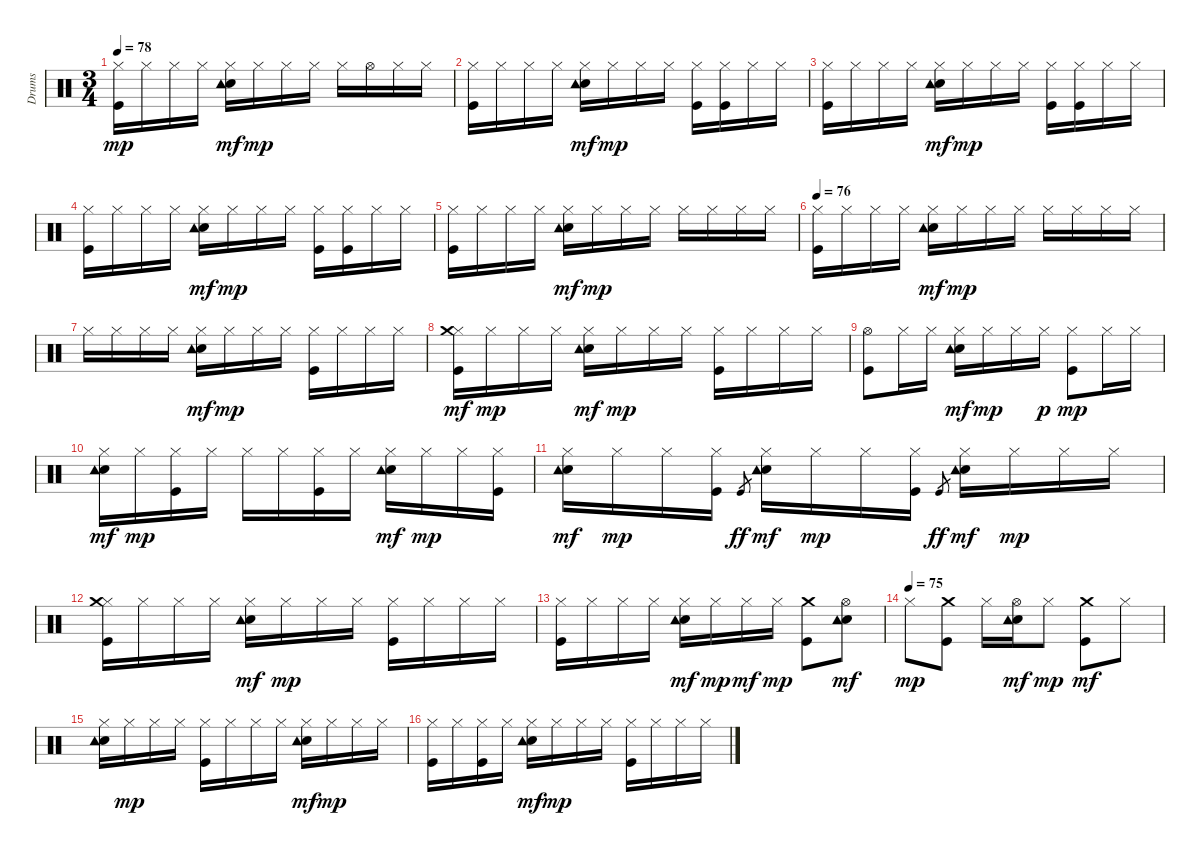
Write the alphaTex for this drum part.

\track ("Drums" "Drums") {instrument percussion}
\staff {score}
\articulation defaults
\ts (3 4)
\tempo 78
\clef neutral
\ks c
("Kick (hit)" "Hi-Hat (closed)").16{dy mp} "Hi-Hat (closed)".16 "Hi-Hat (closed)".16 "Hi-Hat (closed)".16 ("Electric Snare (hit)" "Hi-Hat (closed)" "Tambourine (hit)").16{dy mf} "Hi-Hat (closed)".16{dy mp} "Hi-Hat (closed)".16 "Hi-Hat (closed)".16 "Hi-Hat (closed)".16 "Hi-Hat (open)".16 "Hi-Hat (closed)".16 "Hi-Hat (closed)".16 |
("Kick (hit)" "Hi-Hat (closed)").16 "Hi-Hat (closed)".16 "Hi-Hat (closed)".16 "Hi-Hat (closed)".16 ("Electric Snare (hit)" "Hi-Hat (closed)" "Tambourine (hit)").16{dy mf} "Hi-Hat (closed)".16{dy mp} "Hi-Hat (closed)".16 "Hi-Hat (closed)".16 ("Kick (hit)" "Hi-Hat (closed)").16 ("Kick (hit)" "Hi-Hat (closed)").16 "Hi-Hat (closed)".16 "Hi-Hat (closed)".16 |
("Kick (hit)" "Hi-Hat (closed)").16 "Hi-Hat (closed)".16 "Hi-Hat (closed)".16 "Hi-Hat (closed)".16 ("Electric Snare (hit)" "Hi-Hat (closed)" "Tambourine (hit)").16{dy mf} "Hi-Hat (closed)".16{dy mp} "Hi-Hat (closed)".16 "Hi-Hat (closed)".16 ("Kick (hit)" "Hi-Hat (closed)").16 ("Kick (hit)" "Hi-Hat (closed)").16 "Hi-Hat (closed)".16 "Hi-Hat (closed)".16 |
("Kick (hit)" "Hi-Hat (closed)").16 "Hi-Hat (closed)".16 "Hi-Hat (closed)".16 "Hi-Hat (closed)".16 ("Electric Snare (hit)" "Hi-Hat (closed)" "Tambourine (hit)").16{dy mf} "Hi-Hat (closed)".16{dy mp} "Hi-Hat (closed)".16 "Hi-Hat (closed)".16 ("Kick (hit)" "Hi-Hat (closed)").16 ("Kick (hit)" "Hi-Hat (closed)").16 "Hi-Hat (closed)".16 "Hi-Hat (closed)".16 |
("Kick (hit)" "Hi-Hat (closed)").16 "Hi-Hat (closed)".16 "Hi-Hat (closed)".16 "Hi-Hat (closed)".16 ("Electric Snare (hit)" "Hi-Hat (closed)" "Tambourine (hit)").16{dy mf} "Hi-Hat (closed)".16{dy mp} "Hi-Hat (closed)".16 "Hi-Hat (closed)".16 "Hi-Hat (closed)".16 "Hi-Hat (closed)".16 "Hi-Hat (closed)".16 "Hi-Hat (closed)".16 |
\tempo 76
("Kick (hit)" "Hi-Hat (closed)").16 "Hi-Hat (closed)".16 "Hi-Hat (closed)".16 "Hi-Hat (closed)".16 ("Electric Snare (hit)" "Hi-Hat (closed)" "Tambourine (hit)").16{dy mf} "Hi-Hat (closed)".16{dy mp} "Hi-Hat (closed)".16 "Hi-Hat (closed)".16 "Hi-Hat (closed)".16 "Hi-Hat (closed)".16 "Hi-Hat (closed)".16 "Hi-Hat (closed)".16 |
"Hi-Hat (closed)".16 "Hi-Hat (closed)".16 "Hi-Hat (closed)".16 "Hi-Hat (closed)".16 ("Electric Snare (hit)" "Hi-Hat (closed)" "Tambourine (hit)").16{dy mf} "Hi-Hat (closed)".16{dy mp} "Hi-Hat (closed)".16 "Hi-Hat (closed)".16 ("Kick (hit)" "Hi-Hat (closed)").16 "Hi-Hat (closed)".16 "Hi-Hat (closed)".16 "Hi-Hat (closed)".16 |
("Kick (hit)" "Hi-Hat (closed)" "Crash medium (hit)").16{dy mf} "Hi-Hat (closed)".16{dy mp} "Hi-Hat (closed)".16 "Hi-Hat (closed)".16 ("Electric Snare (hit)" "Hi-Hat (closed)" "Tambourine (hit)").16{dy mf} "Hi-Hat (closed)".16{dy mp} "Hi-Hat (closed)".16 "Hi-Hat (closed)".16 ("Kick (hit)" "Hi-Hat (closed)").16 "Hi-Hat (closed)".16 "Hi-Hat (closed)".16 "Hi-Hat (closed)".16 |
("Kick (hit)" "Hi-Hat (open)").8 "Hi-Hat (closed)".16 "Hi-Hat (closed)".16 ("Electric Snare (hit)" "Hi-Hat (closed)" "Tambourine (hit)").16{dy mf} "Hi-Hat (closed)".16{dy mp} "Hi-Hat (closed)".16 "Hi-Hat (closed)".16{dy p} ("Kick (hit)" "Hi-Hat (closed)").8{dy mp} "Hi-Hat (closed)".16 "Hi-Hat (closed)".16 |
("Electric Snare (hit)" "Hi-Hat (closed)" "Tambourine (hit)").16{dy mf} "Hi-Hat (closed)".16{dy mp} ("Kick (hit)" "Hi-Hat (closed)").16 "Hi-Hat (closed)".16 "Hi-Hat (closed)".16 "Hi-Hat (closed)".16 ("Kick (hit)" "Hi-Hat (closed)").16 "Hi-Hat (closed)".16 ("Electric Snare (hit)" "Hi-Hat (closed)" "Tambourine (hit)").16{dy mf} "Hi-Hat (closed)".16{dy mp} "Hi-Hat (closed)".16 ("Kick (hit)" "Hi-Hat (closed)").16 |
("Electric Snare (hit)" "Hi-Hat (closed)" "Tambourine (hit)").16{dy mf} "Hi-Hat (closed)".16{dy mp} "Hi-Hat (closed)".16 ("Kick (hit)" "Hi-Hat (closed)").16 "Kick (hit)".8{gr dy ff} ("Electric Snare (hit)" "Hi-Hat (closed)" "Tambourine (hit)").16{dy mf} "Hi-Hat (closed)".16{dy mp} "Hi-Hat (closed)".16 ("Kick (hit)" "Hi-Hat (closed)").16 "Kick (hit)".8{gr dy ff} ("Electric Snare (hit)" "Hi-Hat (closed)" "Tambourine (hit)").16{dy mf} "Hi-Hat (closed)".16{dy mp} "Hi-Hat (closed)".16 "Hi-Hat (closed)".16 |
("Kick (hit)" "Hi-Hat (closed)" "Crash medium (hit)").16 "Hi-Hat (closed)".16 "Hi-Hat (closed)".16 "Hi-Hat (closed)".16 ("Electric Snare (hit)" "Hi-Hat (closed)" "Tambourine (hit)").16{dy mf} "Hi-Hat (closed)".16{dy mp} "Hi-Hat (closed)".16 "Hi-Hat (closed)".16 ("Kick (hit)" "Hi-Hat (closed)").16 "Hi-Hat (closed)".16 "Hi-Hat (closed)".16 "Hi-Hat (closed)".16 |
("Kick (hit)" "Hi-Hat (closed)").16 "Hi-Hat (closed)".16 "Hi-Hat (closed)".16 "Hi-Hat (closed)".16 ("Electric Snare (hit)" "Hi-Hat (closed)" "Tambourine (hit)").16{dy mf} "Hi-Hat (closed)".16{dy mp} "Hi-Hat (closed)".16{dy mf} "Hi-Hat (closed)".16{dy mp} ("Kick (hit)" "Crash medium (hit)").8 ("Electric Snare (hit)" "Hi-Hat (open)" "Tambourine (hit)").8{dy mf} |
\tempo (75)
"Hi-Hat (closed)".8{dy mp} ("Kick (hit)" "Crash medium (hit)").8 "Hi-Hat (closed)".16 ("Electric Snare (hit)" "Hi-Hat (open)" "Tambourine (hit)").16{dy mf} "Hi-Hat (closed)".8{dy mp} ("Kick (hit)" "Crash medium (hit)").8{dy mf} "Hi-Hat (closed)".8 |
("Electric Snare (hit)" "Hi-Hat (closed)" "Tambourine (hit)").16 "Hi-Hat (closed)".16{dy mp} "Hi-Hat (closed)".16 "Hi-Hat (closed)".16 ("Kick (hit)" "Hi-Hat (closed)").16 "Hi-Hat (closed)".16 "Hi-Hat (closed)".16 "Hi-Hat (closed)".16 ("Electric Snare (hit)" "Hi-Hat (closed)" "Tambourine (hit)").16{dy mf} "Hi-Hat (closed)".16{dy mp} "Hi-Hat (closed)".16 "Hi-Hat (closed)".16 |
("Kick (hit)" "Hi-Hat (closed)").16 "Hi-Hat (closed)".16 ("Kick (hit)" "Hi-Hat (closed)").16 "Hi-Hat (closed)".16 ("Electric Snare (hit)" "Hi-Hat (closed)" "Tambourine (hit)").16{dy mf} "Hi-Hat (closed)".16{dy mp} "Hi-Hat (closed)".16 "Hi-Hat (closed)".16 ("Kick (hit)" "Hi-Hat (closed)").16 "Hi-Hat (closed)".16 "Hi-Hat (closed)".16 "Hi-Hat (closed)".16
